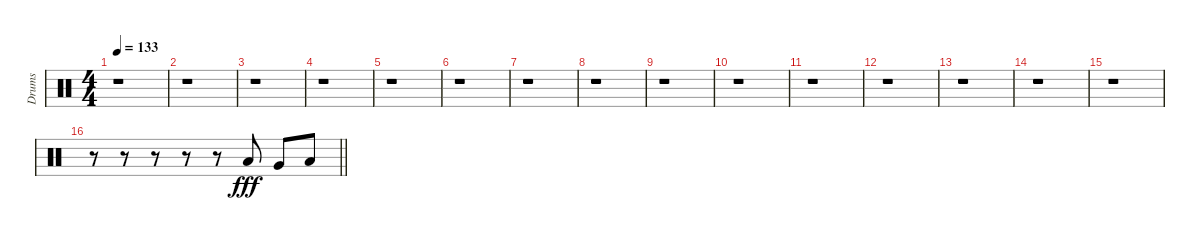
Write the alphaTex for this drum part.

\track ("Drums" "Drums") {instrument percussion}
\staff {score}
\articulation defaults
\ts (4 4)
\tempo 133
\clef neutral
\ks c
r.1{dy fff} |
r.1 |
r.1 |
r.1 |
r.1 |
r.1 |
r.1 |
r.1 |
r.1 |
r.1 |
r.1 |
r.1 |
r.1 |
r.1 |
r.1 |
\barLineRight lightlight
r.8 r.8 r.8 r.8 r.8 "Low Tom (hit)".8 "Very Low Tom (hit)".8 "Low Floor Tom (hit)".8
